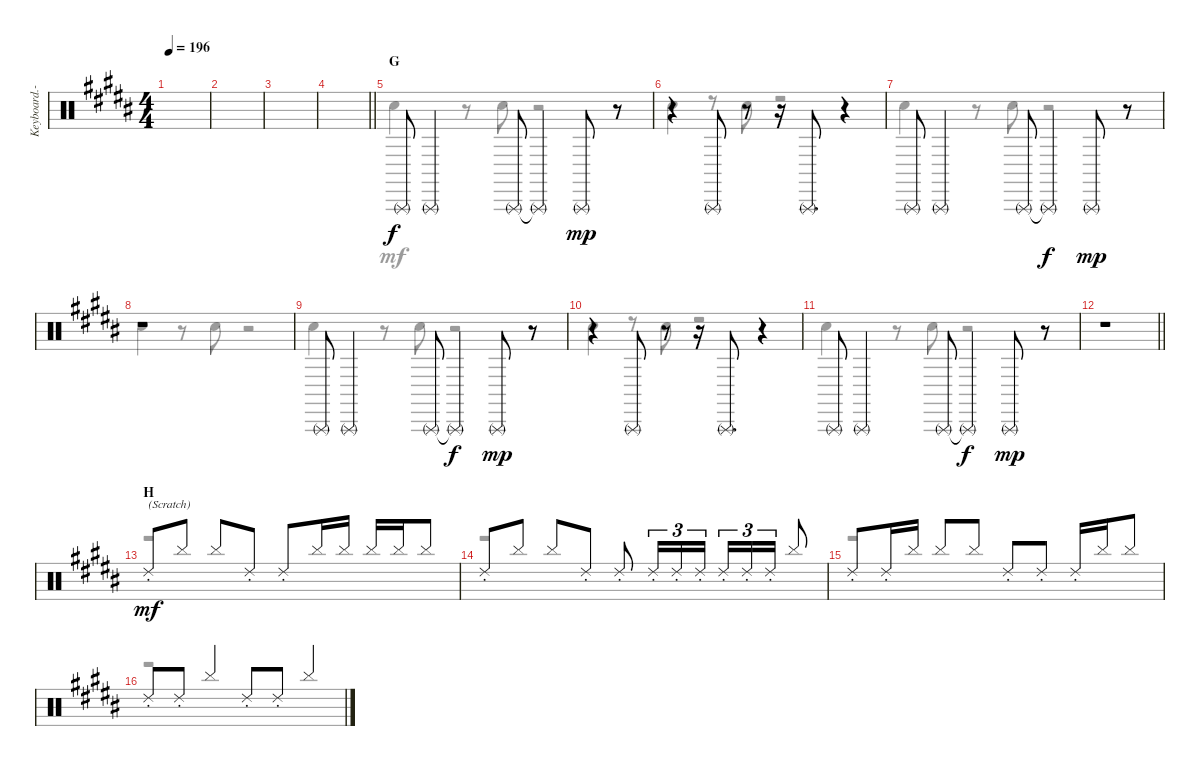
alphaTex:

\track ("Keyboard.-III" "Keyboard.-") {instrument percussion}
\staff {score}
\articulation defaults
\voice
\ts (4 4)
\tempo 196
\clef neutral
\ks b
|
|
|
\barLineRight lightlight
|
\section ("" "G")
"Triangle (rnute)".8 "Triangle (rnute)".4 "Triangle (rnute)".8 "Triangle (rnute)"{t}.4{dy f} "Triangle (rnute)".8{dy mp} r.8 |
r.4 "Triangle (rnute)".8 r.8 r.16 "Triangle (rnute)".8{d} r.4 |
"Triangle (rnute)".8 "Triangle (rnute)".4 "Triangle (rnute)".8 "Triangle (rnute)"{t}.4{dy f} "Triangle (rnute)".8{dy mp} r.8 |
r.1 |
"Triangle (rnute)".8 "Triangle (rnute)".4 "Triangle (rnute)".8 "Triangle (rnute)"{t}.4{dy f} "Triangle (rnute)".8{dy mp} r.8 |
r.4 "Triangle (rnute)".8 r.8 r.16 "Triangle (rnute)".8{d} r.4 |
"Triangle (rnute)".8 "Triangle (rnute)".4 "Triangle (rnute)".8 "Triangle (rnute)"{t}.4{dy f} "Triangle (rnute)".8{dy mp} r.8 |
\barLineRight lightlight
r.1 |
\section ("" "H")
"Ride (choke) 2".8{txt "(Scratch)" dy mf} "Cymbal (hit)".8 "Cymbal (hit)".8 "Ride (choke) 2".8 "Ride (choke) 2".8 "Cymbal (hit)".16 "Cymbal (hit)".16 "Cymbal (hit)".16 "Cymbal (hit)".16 "Cymbal (hit)".8 |
"Ride (choke) 2".8 "Cymbal (hit)".8 "Cymbal (hit)".8 "Ride (choke) 2".8 "Ride (choke) 2".8 "Ride (choke) 2".16{tu (3 2)} "Ride (choke) 2".16{tu (3 2)} "Ride (choke) 2".16{tu (3 2)} "Ride (choke) 2".16{tu (3 2)} "Ride (choke) 2".16{tu (3 2)} "Ride (choke) 2".16{tu (3 2)} "Cymbal (hit)".8 |
"Ride (choke) 2".8 "Ride (choke) 2".16 "Cymbal (hit)".16 "Cymbal (hit)".8 "Cymbal (hit)".8 "Ride (choke) 2".8 "Ride (choke) 2".8 "Ride (choke) 2".16 "Cymbal (hit)".16 "Cymbal (hit)".8 |
"Ride (choke) 2".8 "Ride (choke) 2".8 "Cymbal (hit)".4 "Ride (choke) 2".8 "Ride (choke) 2".8 "Cymbal (hit)".4
\voice
\clef neutral
\ottava regular
\simile none
\ks b
|
|
|
\barLineRight lightlight
|
"Hand Clap (hit)".4 r.8 "Hand Clap (hit)".8 r.2 |
"Hand Clap (hit)".4 r.8 "Hand Clap (hit)".8 r.2 |
"Hand Clap (hit)".4 r.8 "Hand Clap (hit)".8 r.2 |
"Hand Clap (hit)".4 r.8 "Hand Clap (hit)".8 r.2 |
"Hand Clap (hit)".4 r.8 "Hand Clap (hit)".8 r.2 |
"Hand Clap (hit)".4 r.8 "Hand Clap (hit)".8 r.2 |
"Hand Clap (hit)".4 r.8 "Hand Clap (hit)".8 r.2 |
\barLineRight lightlight
r.1 |
r.1 |
r.1 |
r.1 |
r.1
